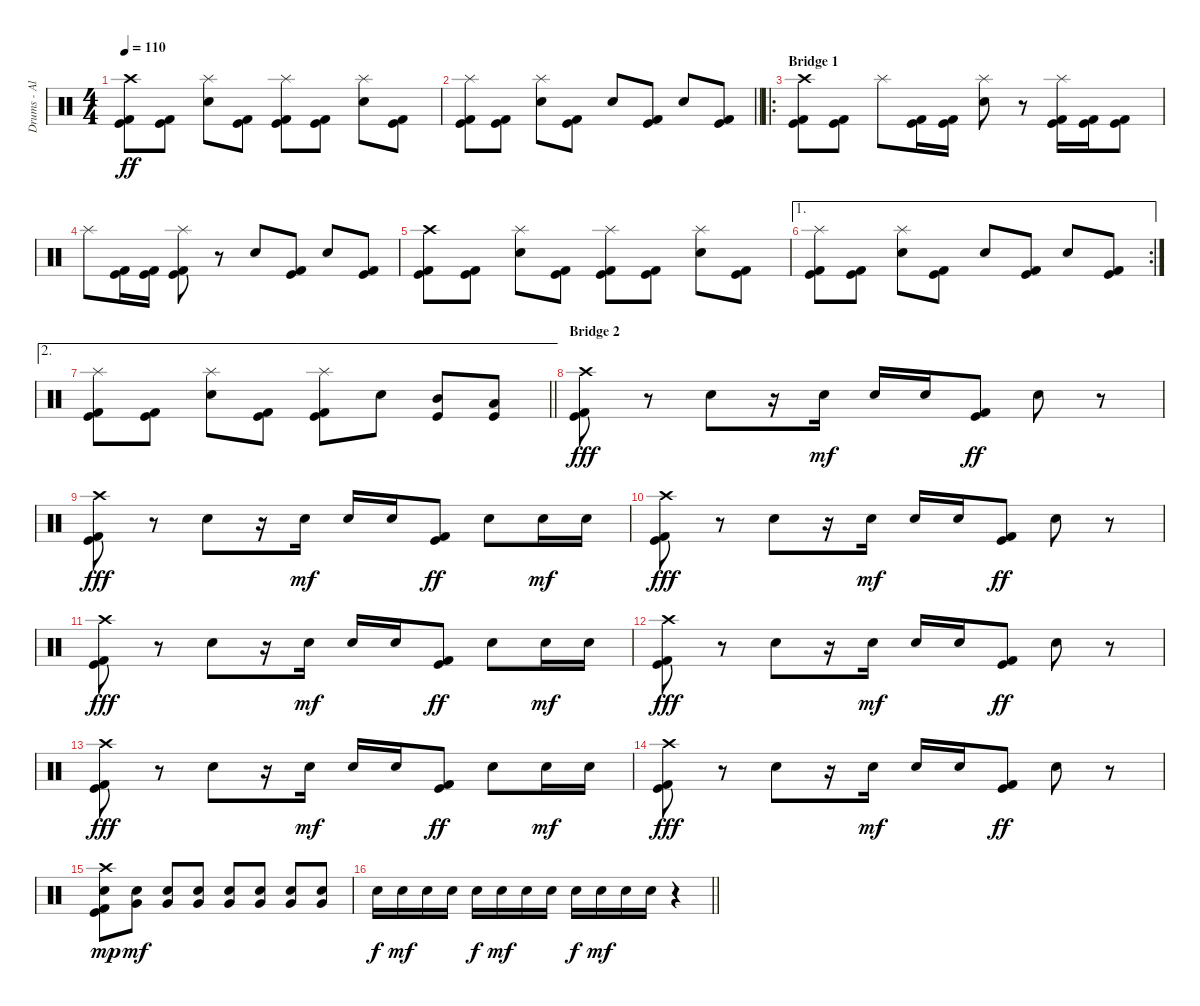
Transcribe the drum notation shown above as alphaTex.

\track ("Drums - Alex Shellnut" "Drums - Al") {instrument percussion}
\staff {score}
\articulation defaults
\ts (4 4)
\tempo 110
\clef neutral
\ks c
("Crash high (hit)" "Kick (hit)" "Kick (hit) 2").8{dy ff} ("Kick (hit)" "Kick (hit) 2").8 ("Splash (hit)" "Electric Snare (hit)").8 ("Kick (hit)" "Kick (hit) 2").8 ("Splash (hit)" "Kick (hit)" "Kick (hit) 2").8 ("Kick (hit)" "Kick (hit) 2").8 ("Splash (hit)" "Electric Snare (hit)").8 ("Kick (hit)" "Kick (hit) 2").8 |
\barLineRight lightlight
("Splash (hit)" "Kick (hit)" "Kick (hit) 2").8 ("Kick (hit)" "Kick (hit) 2").8 ("Splash (hit)" "Electric Snare (hit)").8 ("Kick (hit)" "Kick (hit) 2").8 "Electric Snare (hit)".8 ("Kick (hit)" "Kick (hit) 2").8 "Electric Snare (hit)".8 ("Kick (hit)" "Kick (hit) 2").8 |
\ro
\section ("" "Bridge 1")
("Crash high (hit)" "Kick (hit)" "Kick (hit) 2").8 ("Kick (hit)" "Kick (hit) 2").8 "Splash (hit)".8 ("Kick (hit)" "Kick (hit) 2").16 ("Kick (hit)" "Kick (hit) 2").16 ("Splash (hit)" "Electric Snare (hit)").8 r.8 ("Splash (hit)" "Kick (hit)" "Kick (hit) 2").16 ("Kick (hit)" "Kick (hit) 2").16 ("Kick (hit)" "Kick (hit) 2").8 |
"Splash (hit)".8 ("Kick (hit)" "Kick (hit) 2").16 ("Kick (hit)" "Kick (hit) 2").16 ("Splash (hit)" "Kick (hit)" "Kick (hit) 2").8 r.8 "Electric Snare (hit)".8 ("Kick (hit)" "Kick (hit) 2").8 "Electric Snare (hit)".8 ("Kick (hit)" "Kick (hit) 2").8 |
("Crash high (hit)" "Kick (hit)" "Kick (hit) 2").8 ("Kick (hit)" "Kick (hit) 2").8 ("Splash (hit)" "Electric Snare (hit)").8 ("Kick (hit)" "Kick (hit) 2").8 ("Splash (hit)" "Kick (hit)" "Kick (hit) 2").8 ("Kick (hit)" "Kick (hit) 2").8 ("Splash (hit)" "Electric Snare (hit)").8 ("Kick (hit)" "Kick (hit) 2").8 |
\ae 1
\rc 2
("Splash (hit)" "Kick (hit)" "Kick (hit) 2").8 ("Kick (hit)" "Kick (hit) 2").8 ("Splash (hit)" "Electric Snare (hit)").8 ("Kick (hit)" "Kick (hit) 2").8 "Electric Snare (hit)".8 ("Kick (hit)" "Kick (hit) 2").8 "Electric Snare (hit)".8 ("Kick (hit)" "Kick (hit) 2").8 |
\ae 2
\barLineRight lightlight
("Splash (hit)" "Kick (hit)" "Kick (hit) 2").8 ("Kick (hit)" "Kick (hit) 2").8 ("Splash (hit)" "Electric Snare (hit)").8 ("Kick (hit)" "Kick (hit) 2").8 ("Splash (hit)" "Kick (hit)" "Kick (hit) 2").8 "Electric Snare (hit)".8 ("Mid Tom (hit)" "Kick (hit)").8 ("Low Tom (hit)" "Kick (hit)").8 |
\section ("" "Bridge 2")
("Crash high (hit)" "Kick (hit)" "Kick (hit) 2").8{dy fff} r.8 "Electric Snare (hit)".8 r.16 "Electric Snare (hit)".16{dy mf} "Electric Snare (hit)".16 "Electric Snare (hit)".16 ("Kick (hit)" "Kick (hit) 2").8{dy ff} "Electric Snare (hit)".8 r.8 |
("Crash high (hit)" "Kick (hit)" "Kick (hit) 2").8{dy fff} r.8 "Electric Snare (hit)".8 r.16 "Electric Snare (hit)".16{dy mf} "Electric Snare (hit)".16 "Electric Snare (hit)".16 ("Kick (hit)" "Kick (hit) 2").8{dy ff} "Electric Snare (hit)".8 "Electric Snare (hit)".16{dy mf} "Electric Snare (hit)".16 |
("Crash high (hit)" "Kick (hit)" "Kick (hit) 2").8{dy fff} r.8 "Electric Snare (hit)".8 r.16 "Electric Snare (hit)".16{dy mf} "Electric Snare (hit)".16 "Electric Snare (hit)".16 ("Kick (hit)" "Kick (hit) 2").8{dy ff} "Electric Snare (hit)".8 r.8 |
("Crash high (hit)" "Kick (hit)" "Kick (hit) 2").8{dy fff} r.8 "Electric Snare (hit)".8 r.16 "Electric Snare (hit)".16{dy mf} "Electric Snare (hit)".16 "Electric Snare (hit)".16 ("Kick (hit)" "Kick (hit) 2").8{dy ff} "Electric Snare (hit)".8 "Electric Snare (hit)".16{dy mf} "Electric Snare (hit)".16 |
("Crash high (hit)" "Kick (hit)" "Kick (hit) 2").8{dy fff} r.8 "Electric Snare (hit)".8 r.16 "Electric Snare (hit)".16{dy mf} "Electric Snare (hit)".16 "Electric Snare (hit)".16 ("Kick (hit)" "Kick (hit) 2").8{dy ff} "Electric Snare (hit)".8 r.8 |
("Crash high (hit)" "Kick (hit)" "Kick (hit) 2").8{dy fff} r.8 "Electric Snare (hit)".8 r.16 "Electric Snare (hit)".16{dy mf} "Electric Snare (hit)".16 "Electric Snare (hit)".16 ("Kick (hit)" "Kick (hit) 2").8{dy ff} "Electric Snare (hit)".8 "Electric Snare (hit)".16{dy mf} "Electric Snare (hit)".16 |
("Crash high (hit)" "Kick (hit)" "Kick (hit) 2").8{dy fff} r.8 "Electric Snare (hit)".8 r.16 "Electric Snare (hit)".16{dy mf} "Electric Snare (hit)".16 "Electric Snare (hit)".16 ("Kick (hit)" "Kick (hit) 2").8{dy ff} "Electric Snare (hit)".8 r.8 |
("Crash high (hit)" "Electric Snare (hit)" "Kick (hit)" "Kick (hit) 2").8{dy mp} ("Electric Snare (hit)" "Very Low Tom (hit)").8{dy mf} ("Electric Snare (hit)" "Very Low Tom (hit)").8 ("Electric Snare (hit)" "Very Low Tom (hit)").8 ("Electric Snare (hit)" "Very Low Tom (hit)").8 ("Electric Snare (hit)" "Very Low Tom (hit)").8 ("Electric Snare (hit)" "Very Low Tom (hit)").8 ("Electric Snare (hit)" "Very Low Tom (hit)").8 |
\barLineRight lightlight "Electric Snare (hit)".16{dy f} "Electric Snare (hit)".16{dy mf} "Electric Snare (hit)".16 "Electric Snare (hit)".16 "Electric Snare (hit)".16{dy f} "Electric Snare (hit)".16{dy mf} "Electric Snare (hit)".16 "Electric Snare (hit)".16 "Electric Snare (hit)".16{dy f} "Electric Snare (hit)".16{dy mf} "Electric Snare (hit)".16 "Electric Snare (hit)".16
r.4
